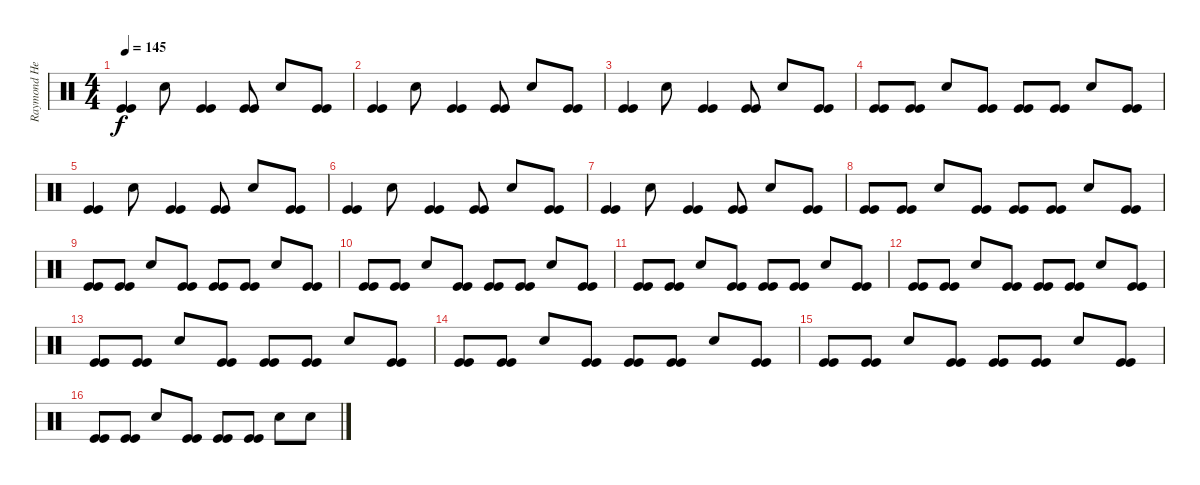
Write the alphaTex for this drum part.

\track ("Raymond Herrera" "Raymond He") {instrument percussion}
\staff {score}
\articulation defaults
\ts (4 4)
\tempo 145
\clef neutral
\ks c
("Kick (hit)" "Kick (hit)").4{dy f} "Electric Snare (hit)".8 ("Kick (hit)" "Kick (hit)").4 ("Kick (hit)" "Kick (hit)").8 "Electric Snare (hit)".8 ("Kick (hit)" "Kick (hit)").8 |
("Kick (hit)" "Kick (hit)").4 "Electric Snare (hit)".8 ("Kick (hit)" "Kick (hit)").4 ("Kick (hit)" "Kick (hit)").8 "Electric Snare (hit)".8 ("Kick (hit)" "Kick (hit)").8 |
("Kick (hit)" "Kick (hit)").4 "Electric Snare (hit)".8 ("Kick (hit)" "Kick (hit)").4 ("Kick (hit)" "Kick (hit)").8 "Electric Snare (hit)".8 ("Kick (hit)" "Kick (hit)").8 |
("Kick (hit)" "Kick (hit)").8 ("Kick (hit)" "Kick (hit)").8 "Electric Snare (hit)".8 ("Kick (hit)" "Kick (hit)").8 ("Kick (hit)" "Kick (hit)").8 ("Kick (hit)" "Kick (hit)").8 "Electric Snare (hit)".8 ("Kick (hit)" "Kick (hit)").8 |
("Kick (hit)" "Kick (hit)").4 "Electric Snare (hit)".8 ("Kick (hit)" "Kick (hit)").4 ("Kick (hit)" "Kick (hit)").8 "Electric Snare (hit)".8 ("Kick (hit)" "Kick (hit)").8 |
("Kick (hit)" "Kick (hit)").4 "Electric Snare (hit)".8 ("Kick (hit)" "Kick (hit)").4 ("Kick (hit)" "Kick (hit)").8 "Electric Snare (hit)".8 ("Kick (hit)" "Kick (hit)").8 |
("Kick (hit)" "Kick (hit)").4 "Electric Snare (hit)".8 ("Kick (hit)" "Kick (hit)").4 ("Kick (hit)" "Kick (hit)").8 "Electric Snare (hit)".8 ("Kick (hit)" "Kick (hit)").8 |
("Kick (hit)" "Kick (hit)").8 ("Kick (hit)" "Kick (hit)").8 "Electric Snare (hit)".8 ("Kick (hit)" "Kick (hit)").8 ("Kick (hit)" "Kick (hit)").8 ("Kick (hit)" "Kick (hit)").8 "Electric Snare (hit)".8 ("Kick (hit)" "Kick (hit)").8 |
("Kick (hit)" "Kick (hit)").8 ("Kick (hit)" "Kick (hit)").8 "Electric Snare (hit)".8 ("Kick (hit)" "Kick (hit)").8 ("Kick (hit)" "Kick (hit)").8 ("Kick (hit)" "Kick (hit)").8 "Electric Snare (hit)".8 ("Kick (hit)" "Kick (hit)").8 |
("Kick (hit)" "Kick (hit)").8 ("Kick (hit)" "Kick (hit)").8 "Electric Snare (hit)".8 ("Kick (hit)" "Kick (hit)").8 ("Kick (hit)" "Kick (hit)").8 ("Kick (hit)" "Kick (hit)").8 "Electric Snare (hit)".8 ("Kick (hit)" "Kick (hit)").8 |
("Kick (hit)" "Kick (hit)").8 ("Kick (hit)" "Kick (hit)").8 "Electric Snare (hit)".8 ("Kick (hit)" "Kick (hit)").8 ("Kick (hit)" "Kick (hit)").8 ("Kick (hit)" "Kick (hit)").8 "Electric Snare (hit)".8 ("Kick (hit)" "Kick (hit)").8 |
("Kick (hit)" "Kick (hit)").8 ("Kick (hit)" "Kick (hit)").8 "Electric Snare (hit)".8 ("Kick (hit)" "Kick (hit)").8 ("Kick (hit)" "Kick (hit)").8 ("Kick (hit)" "Kick (hit)").8 "Electric Snare (hit)".8 ("Kick (hit)" "Kick (hit)").8 |
("Kick (hit)" "Kick (hit)").8 ("Kick (hit)" "Kick (hit)").8 "Electric Snare (hit)".8 ("Kick (hit)" "Kick (hit)").8 ("Kick (hit)" "Kick (hit)").8 ("Kick (hit)" "Kick (hit)").8 "Electric Snare (hit)".8 ("Kick (hit)" "Kick (hit)").8 |
("Kick (hit)" "Kick (hit)").8 ("Kick (hit)" "Kick (hit)").8 "Electric Snare (hit)".8 ("Kick (hit)" "Kick (hit)").8 ("Kick (hit)" "Kick (hit)").8 ("Kick (hit)" "Kick (hit)").8 "Electric Snare (hit)".8 ("Kick (hit)" "Kick (hit)").8 |
("Kick (hit)" "Kick (hit)").8 ("Kick (hit)" "Kick (hit)").8 "Electric Snare (hit)".8 ("Kick (hit)" "Kick (hit)").8 ("Kick (hit)" "Kick (hit)").8 ("Kick (hit)" "Kick (hit)").8 "Electric Snare (hit)".8 ("Kick (hit)" "Kick (hit)").8 |
("Kick (hit)" "Kick (hit)").8 ("Kick (hit)" "Kick (hit)").8 "Electric Snare (hit)".8 ("Kick (hit)" "Kick (hit)").8 ("Kick (hit)" "Kick (hit)").8 ("Kick (hit)" "Kick (hit)").8 "Electric Snare (hit)".8 "Electric Snare (hit)".8
